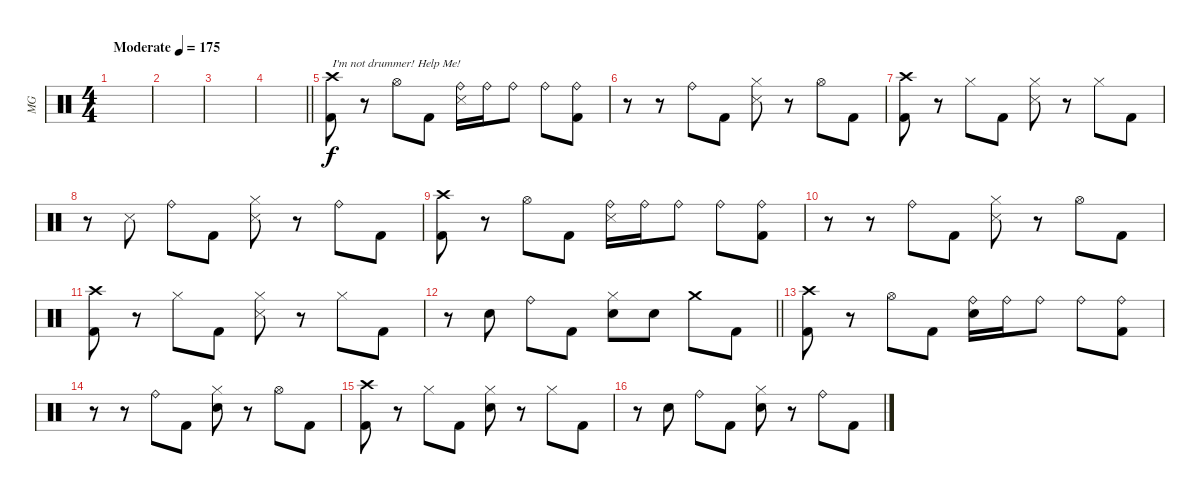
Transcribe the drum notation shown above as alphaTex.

\track ("MG" "MG") {instrument percussion}
\staff {score}
\articulation defaults
\ts (4 4)
\section ("" "")
\tempo (175 "Moderate")
\clef neutral
\ks c
|
|
|
\barLineRight lightlight
|
\section ("" "")
("Crash high (hit)" "Kick (hit) 2").8{txt "I'm not drummer! Help Me!"} r.8 "Hi-Hat (open)".8 "Kick (hit) 2".8 ("Ride (bell)" "Snare (side stick) 3").16 "Ride (bell)".16 "Ride (bell)".8 "Ride (bell)".8 ("Ride (bell)" "Kick (hit) 2").8 |
r.8 r.8 "Ride (bell)".8 "Kick (hit) 2".8 ("Hi-Hat (closed)" "Snare (side stick) 3").8 r.8 "Hi-Hat (open)".8 "Kick (hit) 2".8 |
("Crash high (hit)" "Kick (hit) 2").8 r.8 "Hi-Hat (closed)".8 "Kick (hit) 2".8 ("Hi-Hat (closed)" "Snare (side stick) 3").8 r.8 "Hi-Hat (closed)".8 "Kick (hit) 2".8 |
r.8 "Snare (side stick) 3".8 "Ride (bell)".8 "Kick (hit) 2".8 ("Hi-Hat (closed)" "Snare (side stick) 3").8 r.8 "Ride (bell)".8 "Kick (hit) 2".8 |
("Crash high (hit)" "Kick (hit) 2").8 r.8 "Hi-Hat (open)".8 "Kick (hit) 2".8 ("Ride (bell)" "Snare (side stick) 3").16 "Ride (bell)".16 "Ride (bell)".8 "Ride (bell)".8 ("Ride (bell)" "Kick (hit) 2").8 |
r.8 r.8 "Ride (bell)".8 "Kick (hit) 2".8 ("Hi-Hat (closed)" "Snare (side stick) 3").8 r.8 "Hi-Hat (open)".8 "Kick (hit) 2".8 |
("Crash high (hit)" "Kick (hit) 2").8 r.8 "Hi-Hat (closed)".8 "Kick (hit) 2".8 ("Hi-Hat (closed)" "Snare (side stick) 3").8 r.8 "Hi-Hat (closed)".8 "Kick (hit) 2".8 |
\barLineRight lightlight
r.8 "Electric Snare (hit)".8 "Ride (bell)".8 "Kick (hit) 2".8 ("Hi-Hat (closed)" "Electric Snare (hit)").8 "Electric Snare (hit)".8 "Crash medium (hit)".8 "Kick (hit) 2".8 |
\section ("" "")
("Crash high (hit)" "Kick (hit) 2").8 r.8 "Hi-Hat (open)".8 "Kick (hit) 2".8 ("Ride (bell)" "Electric Snare (hit)").16 "Ride (bell)".16 "Ride (bell)".8 "Ride (bell)".8 ("Ride (bell)" "Kick (hit) 2").8 |
r.8 r.8 "Ride (bell)".8 "Kick (hit) 2".8 ("Hi-Hat (closed)" "Electric Snare (hit)").8 r.8 "Hi-Hat (open)".8 "Kick (hit) 2".8 |
("Crash high (hit)" "Kick (hit) 2").8 r.8 "Hi-Hat (closed)".8 "Kick (hit) 2".8 ("Hi-Hat (closed)" "Electric Snare (hit)").8 r.8 "Hi-Hat (closed)".8 "Kick (hit) 2".8 |
r.8 "Electric Snare (hit)".8 "Ride (bell)".8 "Kick (hit) 2".8 ("Hi-Hat (closed)" "Electric Snare (hit)").8 r.8 "Ride (bell)".8 "Kick (hit) 2".8
